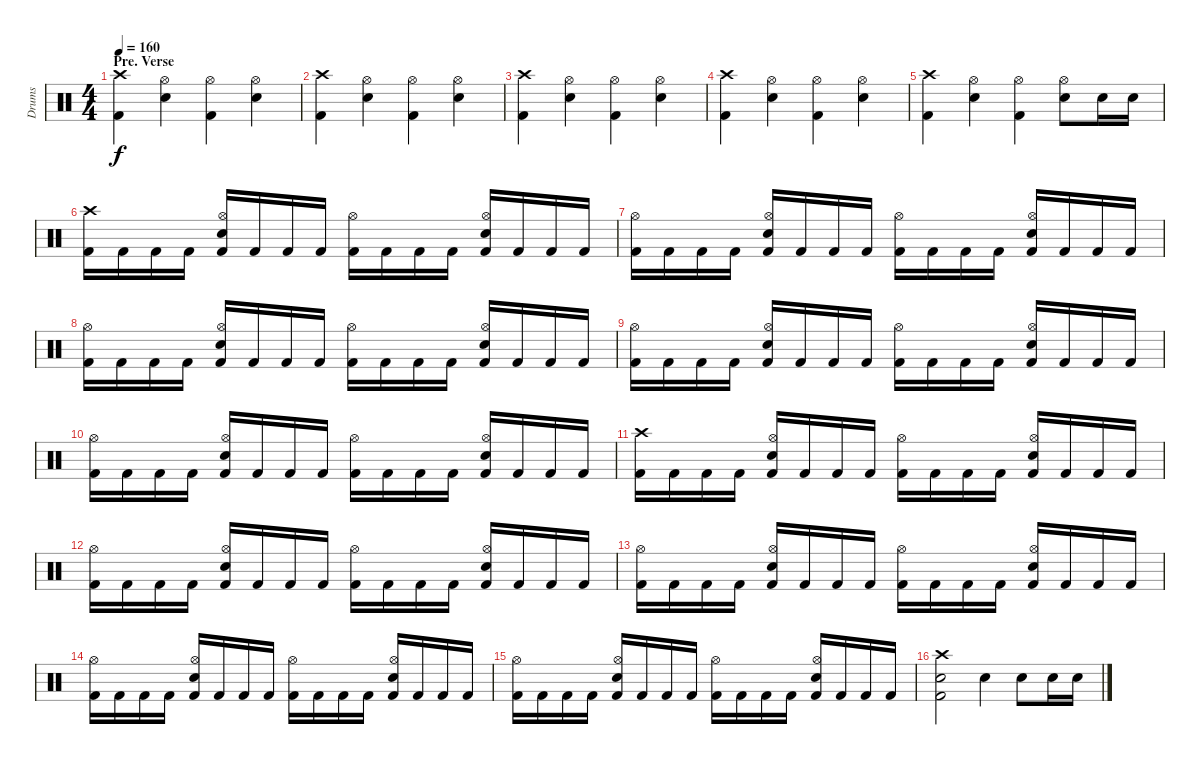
\track ("Drums" "Drums") {instrument percussion}
\staff {score}
\articulation defaults
\ts (4 4)
\section ("" "Pre. Verse")
\tempo 160
\clef neutral
\ks c
("Crash high (hit)" "Kick (hit) 2").4{dy f} ("Hi-Hat (open)" "Electric Snare (hit)").4 ("Hi-Hat (open)" "Kick (hit) 2").4 ("Hi-Hat (open)" "Electric Snare (hit)").4 |
("Crash high (hit)" "Kick (hit) 2").4 ("Hi-Hat (open)" "Electric Snare (hit)").4 ("Hi-Hat (open)" "Kick (hit) 2").4 ("Hi-Hat (open)" "Electric Snare (hit)").4 |
("Crash high (hit)" "Kick (hit) 2").4 ("Hi-Hat (open)" "Electric Snare (hit)").4 ("Hi-Hat (open)" "Kick (hit) 2").4 ("Hi-Hat (open)" "Electric Snare (hit)").4 |
("Crash high (hit)" "Kick (hit) 2").4 ("Hi-Hat (open)" "Electric Snare (hit)").4 ("Hi-Hat (open)" "Kick (hit) 2").4 ("Hi-Hat (open)" "Electric Snare (hit)").4 |
("Crash high (hit)" "Kick (hit) 2").4 ("Hi-Hat (open)" "Electric Snare (hit)").4 ("Hi-Hat (open)" "Kick (hit) 2").4 ("Hi-Hat (open)" "Electric Snare (hit)").8 "Electric Snare (hit)".16 "Electric Snare (hit)".16 |
("Crash high (hit)" "Kick (hit) 2").16 "Kick (hit) 2".16 "Kick (hit) 2".16 "Kick (hit) 2".16 ("Hi-Hat (open)" "Electric Snare (hit)" "Kick (hit) 2").16 "Kick (hit) 2".16 "Kick (hit) 2".16 "Kick (hit) 2".16 ("Hi-Hat (open)" "Kick (hit) 2").16 "Kick (hit) 2".16 "Kick (hit) 2".16 "Kick (hit) 2".16 ("Hi-Hat (open)" "Electric Snare (hit)" "Kick (hit) 2").16 "Kick (hit) 2".16 "Kick (hit) 2".16 "Kick (hit) 2".16 |
("Hi-Hat (open)" "Kick (hit) 2").16 "Kick (hit) 2".16 "Kick (hit) 2".16 "Kick (hit) 2".16 ("Hi-Hat (open)" "Electric Snare (hit)" "Kick (hit) 2").16 "Kick (hit) 2".16 "Kick (hit) 2".16 "Kick (hit) 2".16 ("Hi-Hat (open)" "Kick (hit) 2").16 "Kick (hit) 2".16 "Kick (hit) 2".16 "Kick (hit) 2".16 ("Hi-Hat (open)" "Electric Snare (hit)" "Kick (hit) 2").16 "Kick (hit) 2".16 "Kick (hit) 2".16 "Kick (hit) 2".16 |
("Hi-Hat (open)" "Kick (hit) 2").16 "Kick (hit) 2".16 "Kick (hit) 2".16 "Kick (hit) 2".16 ("Hi-Hat (open)" "Electric Snare (hit)" "Kick (hit) 2").16 "Kick (hit) 2".16 "Kick (hit) 2".16 "Kick (hit) 2".16 ("Hi-Hat (open)" "Kick (hit) 2").16 "Kick (hit) 2".16 "Kick (hit) 2".16 "Kick (hit) 2".16 ("Hi-Hat (open)" "Electric Snare (hit)" "Kick (hit) 2").16 "Kick (hit) 2".16 "Kick (hit) 2".16 "Kick (hit) 2".16 |
("Hi-Hat (open)" "Kick (hit) 2").16 "Kick (hit) 2".16 "Kick (hit) 2".16 "Kick (hit) 2".16 ("Hi-Hat (open)" "Electric Snare (hit)" "Kick (hit) 2").16 "Kick (hit) 2".16 "Kick (hit) 2".16 "Kick (hit) 2".16 ("Hi-Hat (open)" "Kick (hit) 2").16 "Kick (hit) 2".16 "Kick (hit) 2".16 "Kick (hit) 2".16 ("Hi-Hat (open)" "Electric Snare (hit)" "Kick (hit) 2").16 "Kick (hit) 2".16 "Kick (hit) 2".16 "Kick (hit) 2".16 |
("Hi-Hat (open)" "Kick (hit) 2").16 "Kick (hit) 2".16 "Kick (hit) 2".16 "Kick (hit) 2".16 ("Hi-Hat (open)" "Electric Snare (hit)" "Kick (hit) 2").16 "Kick (hit) 2".16 "Kick (hit) 2".16 "Kick (hit) 2".16 ("Hi-Hat (open)" "Kick (hit) 2").16 "Kick (hit) 2".16 "Kick (hit) 2".16 "Kick (hit) 2".16 ("Hi-Hat (open)" "Electric Snare (hit)" "Kick (hit) 2").16 "Kick (hit) 2".16 "Kick (hit) 2".16 "Kick (hit) 2".16 |
("Crash high (hit)" "Kick (hit) 2").16 "Kick (hit) 2".16 "Kick (hit) 2".16 "Kick (hit) 2".16 ("Hi-Hat (open)" "Electric Snare (hit)" "Kick (hit) 2").16 "Kick (hit) 2".16 "Kick (hit) 2".16 "Kick (hit) 2".16 ("Hi-Hat (open)" "Kick (hit) 2").16 "Kick (hit) 2".16 "Kick (hit) 2".16 "Kick (hit) 2".16 ("Hi-Hat (open)" "Electric Snare (hit)" "Kick (hit) 2").16 "Kick (hit) 2".16 "Kick (hit) 2".16 "Kick (hit) 2".16 |
("Hi-Hat (open)" "Kick (hit) 2").16 "Kick (hit) 2".16 "Kick (hit) 2".16 "Kick (hit) 2".16 ("Hi-Hat (open)" "Electric Snare (hit)" "Kick (hit) 2").16 "Kick (hit) 2".16 "Kick (hit) 2".16 "Kick (hit) 2".16 ("Hi-Hat (open)" "Kick (hit) 2").16 "Kick (hit) 2".16 "Kick (hit) 2".16 "Kick (hit) 2".16 ("Hi-Hat (open)" "Electric Snare (hit)" "Kick (hit) 2").16 "Kick (hit) 2".16 "Kick (hit) 2".16 "Kick (hit) 2".16 |
("Hi-Hat (open)" "Kick (hit) 2").16 "Kick (hit) 2".16 "Kick (hit) 2".16 "Kick (hit) 2".16 ("Hi-Hat (open)" "Electric Snare (hit)" "Kick (hit) 2").16 "Kick (hit) 2".16 "Kick (hit) 2".16 "Kick (hit) 2".16 ("Hi-Hat (open)" "Kick (hit) 2").16 "Kick (hit) 2".16 "Kick (hit) 2".16 "Kick (hit) 2".16 ("Hi-Hat (open)" "Electric Snare (hit)" "Kick (hit) 2").16 "Kick (hit) 2".16 "Kick (hit) 2".16 "Kick (hit) 2".16 |
("Hi-Hat (open)" "Kick (hit) 2").16 "Kick (hit) 2".16 "Kick (hit) 2".16 "Kick (hit) 2".16 ("Hi-Hat (open)" "Electric Snare (hit)" "Kick (hit) 2").16 "Kick (hit) 2".16 "Kick (hit) 2".16 "Kick (hit) 2".16 ("Hi-Hat (open)" "Kick (hit) 2").16 "Kick (hit) 2".16 "Kick (hit) 2".16 "Kick (hit) 2".16 ("Hi-Hat (open)" "Electric Snare (hit)" "Kick (hit) 2").16 "Kick (hit) 2".16 "Kick (hit) 2".16 "Kick (hit) 2".16 |
("Hi-Hat (open)" "Kick (hit) 2").16 "Kick (hit) 2".16 "Kick (hit) 2".16 "Kick (hit) 2".16 ("Hi-Hat (open)" "Electric Snare (hit)" "Kick (hit) 2").16 "Kick (hit) 2".16 "Kick (hit) 2".16 "Kick (hit) 2".16 ("Hi-Hat (open)" "Kick (hit) 2").16 "Kick (hit) 2".16 "Kick (hit) 2".16 "Kick (hit) 2".16 ("Hi-Hat (open)" "Electric Snare (hit)" "Kick (hit) 2").16 "Kick (hit) 2".16 "Kick (hit) 2".16 "Kick (hit) 2".16 |
("Crash high (hit)" "Kick (hit) 2" "Electric Snare (hit)").2 "Electric Snare (hit)".4 "Electric Snare (hit)".8 "Electric Snare (hit)".16 "Electric Snare (hit)".16
